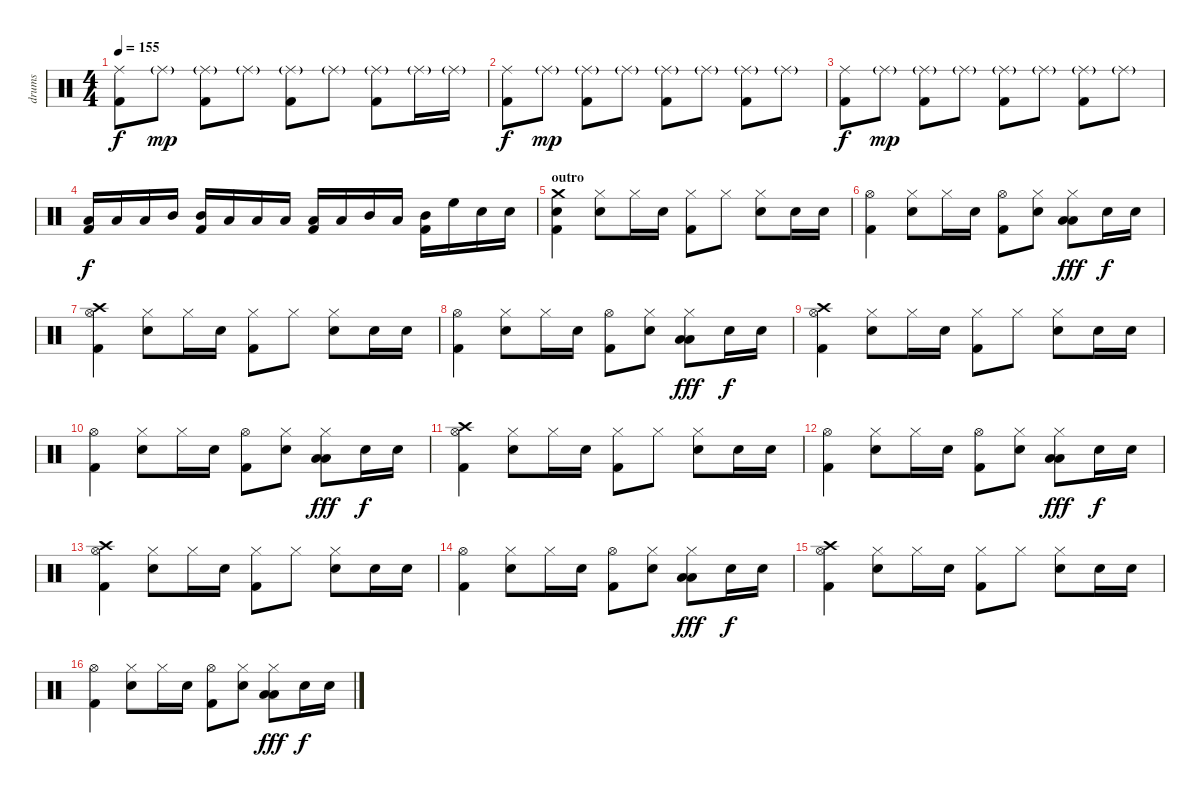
\track ("drums" "drums") {instrument percussion}
\staff {score}
\articulation defaults
\ts (4 4)
\tempo 155
\clef neutral
\ks c
("Ride (middle)" "Kick (hit) 2").8{dy f} "Ride (middle)"{g}.8{dy mp} ("Ride (middle)"{g} "Kick (hit) 2").8 "Ride (middle)"{g}.8 ("Ride (middle)"{g} "Kick (hit) 2").8 "Ride (middle)"{g}.8 ("Ride (middle)"{g} "Kick (hit) 2").8 "Ride (middle)"{g}.16 "Ride (middle)"{g}.16 |
("Ride (middle)" "Kick (hit) 2").8{dy f} "Ride (middle)"{g}.8{dy mp} ("Ride (middle)"{g} "Kick (hit) 2").8 "Ride (middle)"{g}.8 ("Ride (middle)"{g} "Kick (hit) 2").8 "Ride (middle)"{g}.8 ("Ride (middle)"{g} "Kick (hit) 2").8 "Ride (middle)"{g}.8 |
("Ride (middle)" "Kick (hit) 2").8{dy f} "Ride (middle)"{g}.8{dy mp} ("Ride (middle)"{g} "Kick (hit) 2").8 "Ride (middle)"{g}.8 ("Ride (middle)"{g} "Kick (hit) 2").8 "Ride (middle)"{g}.8 ("Ride (middle)"{g} "Kick (hit) 2").8 "Ride (middle)"{g}.8 |
("Low Tom (hit)" "Kick (hit) 2").16{dy f} "Low Tom (hit)".16 "Low Tom (hit)".16 "Mid Tom (hit)".16 ("Mid Tom (hit)" "Kick (hit) 2").16 "Low Tom (hit)".16 "Low Tom (hit)".16 "Low Tom (hit)".16 ("Low Floor Tom (hit)" "Kick (hit) 2").16 "Low Tom (hit)".16 "Mid Tom (hit)".16 "Low Tom (hit)".16 ("Mid Tom (hit)" "Kick (hit) 2").16 "High Floor Tom (hit)".16 "Electric Snare (hit)".16 "Electric Snare (hit)".16 |
\section ("" "outro")
("Snare (hit) 2" "Kick (hit) 2" "Crash medium (hit)").4 ("Electric Snare (hit)" "Hi-Hat (closed)").8 "Hi-Hat (closed)".16 "Electric Snare (hit)".16 ("Kick (hit) 2" "Hi-Hat (closed)").8 "Hi-Hat (closed)".8 ("Electric Snare (hit)" "Hi-Hat (closed)").8 "Electric Snare (hit)".16 "Electric Snare (hit)".16 |
("Hi-Hat (open)" "Kick (hit) 2").4 ("Electric Snare (hit)" "Hi-Hat (closed)").8 "Hi-Hat (closed)".16 "Electric Snare (hit)".16 ("Kick (hit) 2" "Hi-Hat (open)").8 ("Electric Snare (hit)" "Hi-Hat (closed)").8 ("Low Floor Tom (hit)" "Low Tom (hit)" "Hi-Hat (closed)").8{dy fff} "Electric Snare (hit)".16{dy f} "Electric Snare (hit)".16 |
("Crash high (hit)" "Kick (hit) 2" "Hi-Hat (open)").4 ("Electric Snare (hit)" "Hi-Hat (closed)").8 "Hi-Hat (closed)".16 "Electric Snare (hit)".16 ("Kick (hit) 2" "Hi-Hat (closed)").8 "Hi-Hat (closed)".8 ("Electric Snare (hit)" "Hi-Hat (closed)").8 "Electric Snare (hit)".16 "Electric Snare (hit)".16 |
("Hi-Hat (open)" "Kick (hit) 2").4 ("Electric Snare (hit)" "Hi-Hat (closed)").8 "Hi-Hat (closed)".16 "Electric Snare (hit)".16 ("Kick (hit) 2" "Hi-Hat (open)").8 ("Electric Snare (hit)" "Hi-Hat (closed)").8 ("Low Floor Tom (hit)" "Low Tom (hit)" "Hi-Hat (closed)").8{dy fff} "Electric Snare (hit)".16{dy f} "Electric Snare (hit)".16 |
("Crash high (hit)" "Kick (hit) 2" "Hi-Hat (open)").4 ("Electric Snare (hit)" "Hi-Hat (closed)").8 "Hi-Hat (closed)".16 "Electric Snare (hit)".16 ("Kick (hit) 2" "Hi-Hat (closed)").8 "Hi-Hat (closed)".8 ("Electric Snare (hit)" "Hi-Hat (closed)").8 "Electric Snare (hit)".16 "Electric Snare (hit)".16 |
("Hi-Hat (open)" "Kick (hit) 2").4 ("Electric Snare (hit)" "Hi-Hat (closed)").8 "Hi-Hat (closed)".16 "Electric Snare (hit)".16 ("Kick (hit) 2" "Hi-Hat (open)").8 ("Electric Snare (hit)" "Hi-Hat (closed)").8 ("Low Floor Tom (hit)" "Low Tom (hit)" "Hi-Hat (closed)").8{dy fff} "Electric Snare (hit)".16{dy f} "Electric Snare (hit)".16 |
("Crash high (hit)" "Kick (hit) 2" "Hi-Hat (open)").4 ("Electric Snare (hit)" "Hi-Hat (closed)").8 "Hi-Hat (closed)".16 "Electric Snare (hit)".16 ("Kick (hit) 2" "Hi-Hat (closed)").8 "Hi-Hat (closed)".8 ("Electric Snare (hit)" "Hi-Hat (closed)").8 "Electric Snare (hit)".16 "Electric Snare (hit)".16 |
("Hi-Hat (open)" "Kick (hit) 2").4 ("Electric Snare (hit)" "Hi-Hat (closed)").8 "Hi-Hat (closed)".16 "Electric Snare (hit)".16 ("Kick (hit) 2" "Hi-Hat (open)").8 ("Electric Snare (hit)" "Hi-Hat (closed)").8 ("Low Floor Tom (hit)" "Low Tom (hit)" "Hi-Hat (closed)").8{dy fff} "Electric Snare (hit)".16{dy f} "Electric Snare (hit)".16 |
("Crash high (hit)" "Kick (hit) 2" "Hi-Hat (open)").4 ("Electric Snare (hit)" "Hi-Hat (closed)").8 "Hi-Hat (closed)".16 "Electric Snare (hit)".16 ("Kick (hit) 2" "Hi-Hat (closed)").8 "Hi-Hat (closed)".8 ("Electric Snare (hit)" "Hi-Hat (closed)").8 "Electric Snare (hit)".16 "Electric Snare (hit)".16 |
("Hi-Hat (open)" "Kick (hit) 2").4 ("Electric Snare (hit)" "Hi-Hat (closed)").8 "Hi-Hat (closed)".16 "Electric Snare (hit)".16 ("Kick (hit) 2" "Hi-Hat (open)").8 ("Electric Snare (hit)" "Hi-Hat (closed)").8 ("Low Floor Tom (hit)" "Low Tom (hit)" "Hi-Hat (closed)").8{dy fff} "Electric Snare (hit)".16{dy f} "Electric Snare (hit)".16 |
("Crash high (hit)" "Kick (hit) 2" "Hi-Hat (open)").4 ("Electric Snare (hit)" "Hi-Hat (closed)").8 "Hi-Hat (closed)".16 "Electric Snare (hit)".16 ("Kick (hit) 2" "Hi-Hat (closed)").8 "Hi-Hat (closed)".8 ("Electric Snare (hit)" "Hi-Hat (closed)").8 "Electric Snare (hit)".16 "Electric Snare (hit)".16 |
("Hi-Hat (open)" "Kick (hit) 2").4 ("Electric Snare (hit)" "Hi-Hat (closed)").8 "Hi-Hat (closed)".16 "Electric Snare (hit)".16 ("Kick (hit) 2" "Hi-Hat (open)").8 ("Electric Snare (hit)" "Hi-Hat (closed)").8 ("Low Floor Tom (hit)" "Low Tom (hit)" "Hi-Hat (closed)").8{dy fff} "Electric Snare (hit)".16{dy f} "Electric Snare (hit)".16
